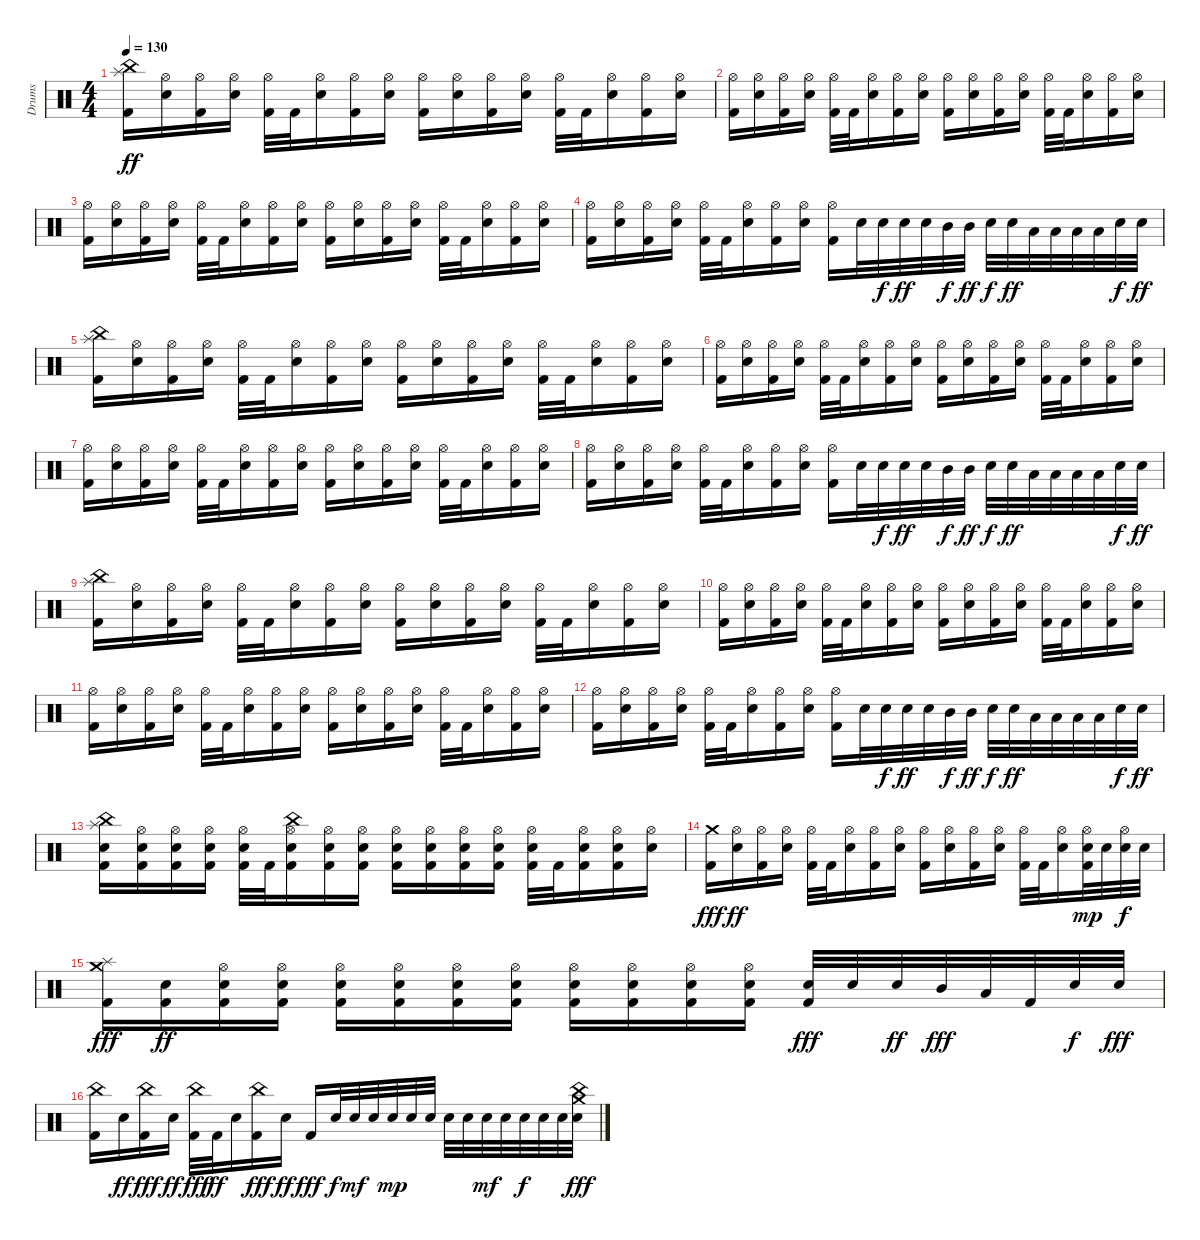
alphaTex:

\track ("Drums" "Drums") {instrument percussion}
\staff {score}
\articulation defaults
\ts (4 4)
\tempo 130
\clef neutral
\ks c
("Kick (hit) 2" "Splash (hit)" "China (hit)").16{dy ff} ("Snare (hit) 2" "Hi-Hat (open)").16 ("Kick (hit) 2" "Hi-Hat (open)").16 ("Snare (hit) 2" "Hi-Hat (open)").16 ("Kick (hit) 2" "Hi-Hat (open)").32 "Kick (hit) 2".32 ("Electric Snare (hit)" "Hi-Hat (open)").16 ("Kick (hit) 2" "Hi-Hat (open)").16 ("Snare (hit) 2" "Hi-Hat (open)").16 ("Kick (hit) 2" "Hi-Hat (open)").16 ("Snare (hit) 2" "Hi-Hat (open)").16 ("Kick (hit) 2" "Hi-Hat (open)").16 ("Snare (hit) 2" "Hi-Hat (open)").16 ("Kick (hit) 2" "Hi-Hat (open)").32 "Kick (hit) 2".32 ("Electric Snare (hit)" "Hi-Hat (open)").16 ("Kick (hit) 2" "Hi-Hat (open)").16 ("Snare (hit) 2" "Hi-Hat (open)").16 |
("Kick (hit) 2" "Hi-Hat (open)").16 ("Snare (hit) 2" "Hi-Hat (open)").16 ("Kick (hit) 2" "Hi-Hat (open)").16 ("Snare (hit) 2" "Hi-Hat (open)").16 ("Kick (hit) 2" "Hi-Hat (open)").32 "Kick (hit) 2".32 ("Snare (hit) 2" "Hi-Hat (open)").16 ("Kick (hit) 2" "Hi-Hat (open)").16 ("Snare (hit) 2" "Hi-Hat (open)").16 ("Kick (hit) 2" "Hi-Hat (open)").16 ("Snare (hit) 2" "Hi-Hat (open)").16 ("Kick (hit) 2" "Hi-Hat (open)").16 ("Snare (hit) 2" "Hi-Hat (open)").16 ("Kick (hit) 2" "Hi-Hat (open)").32 "Kick (hit) 2".32 ("Snare (hit) 2" "Hi-Hat (open)").16 ("Kick (hit) 2" "Hi-Hat (open)").16 ("Snare (hit) 2" "Hi-Hat (open)").16 |
("Kick (hit) 2" "Hi-Hat (open)").16 ("Snare (hit) 2" "Hi-Hat (open)").16 ("Kick (hit) 2" "Hi-Hat (open)").16 ("Snare (hit) 2" "Hi-Hat (open)").16 ("Kick (hit) 2" "Hi-Hat (open)").32 "Kick (hit) 2".32 ("Snare (hit) 2" "Hi-Hat (open)").16 ("Kick (hit) 2" "Hi-Hat (open)").16 ("Snare (hit) 2" "Hi-Hat (open)").16 ("Kick (hit) 2" "Hi-Hat (open)").16 ("Snare (hit) 2" "Hi-Hat (open)").16 ("Kick (hit) 2" "Hi-Hat (open)").16 ("Snare (hit) 2" "Hi-Hat (open)").16 ("Kick (hit) 2" "Hi-Hat (open)").32 "Kick (hit) 2".32 ("Snare (hit) 2" "Hi-Hat (open)").16 ("Kick (hit) 2" "Hi-Hat (open)").16 ("Snare (hit) 2" "Hi-Hat (open)").16 |
("Kick (hit) 2" "Hi-Hat (open)").16 ("Snare (hit) 2" "Hi-Hat (open)").16 ("Kick (hit) 2" "Hi-Hat (open)").16 ("Snare (hit) 2" "Hi-Hat (open)").16 ("Kick (hit) 2" "Hi-Hat (open)").32 "Kick (hit) 2".32 ("Electric Snare (hit)" "Hi-Hat (open)").16 ("Kick (hit) 2" "Hi-Hat (open)").16 ("Snare (hit) 2" "Hi-Hat (open)").16 ("Kick (hit) 2" "Hi-Hat (open)").16 "Snare (hit) 2".32 "Snare (hit) 2".32{dy f} "Snare (hit) 2".32{dy ff} "Snare (hit) 2".32 "Mid Tom (hit)".32{dy f} "Mid Tom (hit)".32{dy ff} "Snare (hit) 2".32{dy f} "Snare (hit) 2".32{dy ff} "Low Tom (hit)".32 "Low Tom (hit)".32 "Low Tom (hit)".32 "Low Tom (hit)".32 "Snare (hit) 2".32{dy f} "Snare (hit) 2".32{dy ff} |
("Kick (hit) 2" "Splash (hit)" "China (hit)").16 ("Snare (hit) 2" "Hi-Hat (open)").16 ("Kick (hit) 2" "Hi-Hat (open)").16 ("Snare (hit) 2" "Hi-Hat (open)").16 ("Kick (hit) 2" "Hi-Hat (open)").32 "Kick (hit) 2".32 ("Electric Snare (hit)" "Hi-Hat (open)").16 ("Kick (hit) 2" "Hi-Hat (open)").16 ("Snare (hit) 2" "Hi-Hat (open)").16 ("Kick (hit) 2" "Hi-Hat (open)").16 ("Snare (hit) 2" "Hi-Hat (open)").16 ("Kick (hit) 2" "Hi-Hat (open)").16 ("Snare (hit) 2" "Hi-Hat (open)").16 ("Kick (hit) 2" "Hi-Hat (open)").32 "Kick (hit) 2".32 ("Electric Snare (hit)" "Hi-Hat (open)").16 ("Kick (hit) 2" "Hi-Hat (open)").16 ("Snare (hit) 2" "Hi-Hat (open)").16 |
("Kick (hit) 2" "Hi-Hat (open)").16 ("Snare (hit) 2" "Hi-Hat (open)").16 ("Kick (hit) 2" "Hi-Hat (open)").16 ("Snare (hit) 2" "Hi-Hat (open)").16 ("Kick (hit) 2" "Hi-Hat (open)").32 "Kick (hit) 2".32 ("Snare (hit) 2" "Hi-Hat (open)").16 ("Kick (hit) 2" "Hi-Hat (open)").16 ("Snare (hit) 2" "Hi-Hat (open)").16 ("Kick (hit) 2" "Hi-Hat (open)").16 ("Snare (hit) 2" "Hi-Hat (open)").16 ("Kick (hit) 2" "Hi-Hat (open)").16 ("Snare (hit) 2" "Hi-Hat (open)").16 ("Kick (hit) 2" "Hi-Hat (open)").32 "Kick (hit) 2".32 ("Snare (hit) 2" "Hi-Hat (open)").16 ("Kick (hit) 2" "Hi-Hat (open)").16 ("Snare (hit) 2" "Hi-Hat (open)").16 |
("Kick (hit) 2" "Hi-Hat (open)").16 ("Snare (hit) 2" "Hi-Hat (open)").16 ("Kick (hit) 2" "Hi-Hat (open)").16 ("Snare (hit) 2" "Hi-Hat (open)").16 ("Kick (hit) 2" "Hi-Hat (open)").32 "Kick (hit) 2".32 ("Snare (hit) 2" "Hi-Hat (open)").16 ("Kick (hit) 2" "Hi-Hat (open)").16 ("Snare (hit) 2" "Hi-Hat (open)").16 ("Kick (hit) 2" "Hi-Hat (open)").16 ("Snare (hit) 2" "Hi-Hat (open)").16 ("Kick (hit) 2" "Hi-Hat (open)").16 ("Snare (hit) 2" "Hi-Hat (open)").16 ("Kick (hit) 2" "Hi-Hat (open)").32 "Kick (hit) 2".32 ("Snare (hit) 2" "Hi-Hat (open)").16 ("Kick (hit) 2" "Hi-Hat (open)").16 ("Snare (hit) 2" "Hi-Hat (open)").16 |
("Kick (hit) 2" "Hi-Hat (open)").16 ("Snare (hit) 2" "Hi-Hat (open)").16 ("Kick (hit) 2" "Hi-Hat (open)").16 ("Snare (hit) 2" "Hi-Hat (open)").16 ("Kick (hit) 2" "Hi-Hat (open)").32 "Kick (hit) 2".32 ("Electric Snare (hit)" "Hi-Hat (open)").16 ("Kick (hit) 2" "Hi-Hat (open)").16 ("Snare (hit) 2" "Hi-Hat (open)").16 ("Kick (hit) 2" "Hi-Hat (open)").16 "Snare (hit) 2".32 "Snare (hit) 2".32{dy f} "Snare (hit) 2".32{dy ff} "Snare (hit) 2".32 "Mid Tom (hit)".32{dy f} "Mid Tom (hit)".32{dy ff} "Snare (hit) 2".32{dy f} "Snare (hit) 2".32{dy ff} "Low Tom (hit)".32 "Low Tom (hit)".32 "Low Tom (hit)".32 "Low Tom (hit)".32 "Snare (hit) 2".32{dy f} "Snare (hit) 2".32{dy ff} |
("Kick (hit) 2" "Splash (hit)" "China (hit)").16 ("Snare (hit) 2" "Hi-Hat (open)").16 ("Kick (hit) 2" "Hi-Hat (open)").16 ("Snare (hit) 2" "Hi-Hat (open)").16 ("Kick (hit) 2" "Hi-Hat (open)").32 "Kick (hit) 2".32 ("Electric Snare (hit)" "Hi-Hat (open)").16 ("Kick (hit) 2" "Hi-Hat (open)").16 ("Snare (hit) 2" "Hi-Hat (open)").16 ("Kick (hit) 2" "Hi-Hat (open)").16 ("Snare (hit) 2" "Hi-Hat (open)").16 ("Kick (hit) 2" "Hi-Hat (open)").16 ("Snare (hit) 2" "Hi-Hat (open)").16 ("Kick (hit) 2" "Hi-Hat (open)").32 "Kick (hit) 2".32 ("Electric Snare (hit)" "Hi-Hat (open)").16 ("Kick (hit) 2" "Hi-Hat (open)").16 ("Snare (hit) 2" "Hi-Hat (open)").16 |
("Kick (hit) 2" "Hi-Hat (open)").16 ("Snare (hit) 2" "Hi-Hat (open)").16 ("Kick (hit) 2" "Hi-Hat (open)").16 ("Snare (hit) 2" "Hi-Hat (open)").16 ("Kick (hit) 2" "Hi-Hat (open)").32 "Kick (hit) 2".32 ("Snare (hit) 2" "Hi-Hat (open)").16 ("Kick (hit) 2" "Hi-Hat (open)").16 ("Snare (hit) 2" "Hi-Hat (open)").16 ("Kick (hit) 2" "Hi-Hat (open)").16 ("Snare (hit) 2" "Hi-Hat (open)").16 ("Kick (hit) 2" "Hi-Hat (open)").16 ("Snare (hit) 2" "Hi-Hat (open)").16 ("Kick (hit) 2" "Hi-Hat (open)").32 "Kick (hit) 2".32 ("Snare (hit) 2" "Hi-Hat (open)").16 ("Kick (hit) 2" "Hi-Hat (open)").16 ("Snare (hit) 2" "Hi-Hat (open)").16 |
("Kick (hit) 2" "Hi-Hat (open)").16 ("Snare (hit) 2" "Hi-Hat (open)").16 ("Kick (hit) 2" "Hi-Hat (open)").16 ("Snare (hit) 2" "Hi-Hat (open)").16 ("Kick (hit) 2" "Hi-Hat (open)").32 "Kick (hit) 2".32 ("Snare (hit) 2" "Hi-Hat (open)").16 ("Kick (hit) 2" "Hi-Hat (open)").16 ("Snare (hit) 2" "Hi-Hat (open)").16 ("Kick (hit) 2" "Hi-Hat (open)").16 ("Snare (hit) 2" "Hi-Hat (open)").16 ("Kick (hit) 2" "Hi-Hat (open)").16 ("Snare (hit) 2" "Hi-Hat (open)").16 ("Kick (hit) 2" "Hi-Hat (open)").32 "Kick (hit) 2".32 ("Snare (hit) 2" "Hi-Hat (open)").16 ("Kick (hit) 2" "Hi-Hat (open)").16 ("Snare (hit) 2" "Hi-Hat (open)").16 |
("Kick (hit) 2" "Hi-Hat (open)").16 ("Snare (hit) 2" "Hi-Hat (open)").16 ("Kick (hit) 2" "Hi-Hat (open)").16 ("Snare (hit) 2" "Hi-Hat (open)").16 ("Kick (hit) 2" "Hi-Hat (open)").32 "Kick (hit) 2".32 ("Electric Snare (hit)" "Hi-Hat (open)").16 ("Kick (hit) 2" "Hi-Hat (open)").16 ("Snare (hit) 2" "Hi-Hat (open)").16 ("Kick (hit) 2" "Hi-Hat (open)").16 "Snare (hit) 2".32 "Snare (hit) 2".32{dy f} "Snare (hit) 2".32{dy ff} "Snare (hit) 2".32 "Mid Tom (hit)".32{dy f} "Mid Tom (hit)".32{dy ff} "Snare (hit) 2".32{dy f} "Snare (hit) 2".32{dy ff} "Low Tom (hit)".32 "Low Tom (hit)".32 "Low Tom (hit)".32 "Low Tom (hit)".32 "Snare (hit) 2".32{dy f} "Snare (hit) 2".32{dy ff} |
("Kick (hit) 2" "Snare (hit) 2" "Splash (hit)" "China (hit)").16 ("Kick (hit) 2" "Snare (hit) 2" "Hi-Hat (open)").16 ("Kick (hit) 2" "Snare (hit) 2" "Hi-Hat (open)").16 ("Kick (hit) 2" "Snare (hit) 2" "Hi-Hat (open)").16 ("Kick (hit) 2" "Snare (hit) 2" "Hi-Hat (open)").32 "Kick (hit) 2".32 ("Kick (hit) 2" "Snare (hit) 2" "China (hit)" "Hi-Hat (open)").16 ("Kick (hit) 2" "Snare (hit) 2" "Hi-Hat (open)").16 ("Kick (hit) 2" "Snare (hit) 2" "Hi-Hat (open)").16 ("Kick (hit) 2" "Snare (hit) 2" "Hi-Hat (open)").16 ("Kick (hit) 2" "Snare (hit) 2" "Hi-Hat (open)").16 ("Kick (hit) 2" "Snare (hit) 2" "Hi-Hat (open)").16 ("Kick (hit) 2" "Snare (hit) 2" "Hi-Hat (open)").16 ("Kick (hit) 2" "Snare (hit) 2" "Hi-Hat (open)").32 "Kick (hit) 2".32 ("Kick (hit) 2" "Snare (hit) 2" "Hi-Hat (open)").16 ("Kick (hit) 2" "Snare (hit) 2" "Hi-Hat (open)").16 ("Snare (hit) 2" "Hi-Hat (open)").16 |
("Kick (hit) 2" "Crash medium (hit)").16{dy fff} ("Snare (hit) 2" "Hi-Hat (open)").16{dy ff} ("Kick (hit) 2" "Hi-Hat (open)").16 ("Snare (hit) 2" "Hi-Hat (open)").16 ("Kick (hit) 2" "Hi-Hat (open)").32 "Kick (hit) 2".32 ("Snare (hit) 2" "Hi-Hat (open)").16 ("Kick (hit) 2" "Hi-Hat (open)").16 ("Snare (hit) 2" "Hi-Hat (open)").16 ("Kick (hit) 2" "Hi-Hat (open)").16 ("Snare (hit) 2" "Hi-Hat (open)").16 ("Kick (hit) 2" "Hi-Hat (open)").16 ("Snare (hit) 2" "Hi-Hat (open)").16 ("Kick (hit) 2" "Hi-Hat (open)").32 "Kick (hit) 2".32 ("Snare (hit) 2" "Hi-Hat (open)").16 ("Kick (hit) 2" "Snare (hit) 2" "Hi-Hat (open)").32{dy mp} "Snare (hit) 2".32 ("Snare (hit) 2" "Hi-Hat (open)").32{dy f} "Snare (hit) 2".32 |
("Kick (hit) 2" "Splash (hit)" "Crash medium (hit)").16{dy fff} ("Kick (hit) 2" "Snare (hit) 2").16{dy ff} ("Kick (hit) 2" "Snare (hit) 2" "Hi-Hat (open)").16 ("Kick (hit) 2" "Snare (hit) 2" "Hi-Hat (open)").16 ("Kick (hit) 2" "Snare (hit) 2" "Hi-Hat (open)").16 ("Kick (hit) 2" "Snare (hit) 2" "Hi-Hat (open)").16 ("Kick (hit) 2" "Snare (hit) 2" "Hi-Hat (open)").16 ("Kick (hit) 2" "Snare (hit) 2" "Hi-Hat (open)").16 ("Kick (hit) 2" "Snare (hit) 2" "Hi-Hat (open)").16 ("Kick (hit) 2" "Snare (hit) 2" "Hi-Hat (open)").16 ("Kick (hit) 2" "Snare (hit) 2" "Hi-Hat (open)").16 ("Kick (hit) 2" "Snare (hit) 2" "Hi-Hat (open)").16 ("Kick (hit) 2" "Snare (hit) 2").32{dy fff} "Snare (hit) 2".32 "Snare (hit) 2".32{dy ff} "Mid Tom (hit)".32{dy fff} "Low Tom (hit)".32 "Kick (hit) 2".32 "Snare (hit) 2".32{dy f} "Snare (hit) 2".32{dy fff} |
("Kick (hit) 2" "China (hit)").16 "Snare (hit) 2".16{dy ff} ("Kick (hit) 2" "China (hit)").16{dy fff} "Snare (hit) 2".16{dy ff} ("Kick (hit) 2" "China (hit)").32{dy fff} "Kick (hit) 2".32{dy ff} "Snare (hit) 2".16 ("Kick (hit) 2" "China (hit)").16{dy fff} "Snare (hit) 2".16{dy ff} "Kick (hit) 2".16{dy fff} "Snare (hit) 2".32{dy f} "Snare (hit) 2".32{dy mf} "Snare (hit) 2".32 "Snare (hit) 2".32{dy mp} "Snare (hit) 2".32 "Snare (hit) 2".32 "Snare (hit) 2".32 "Snare (hit) 2".32 "Snare (hit) 2".32{dy mf} "Snare (hit) 2".32 "Snare (hit) 2".32{dy f} "Snare (hit) 2".32 "Snare (hit) 2".32 ("Snare (hit) 2" "China (hit)" "Crash medium (hit)").32{dy fff}
